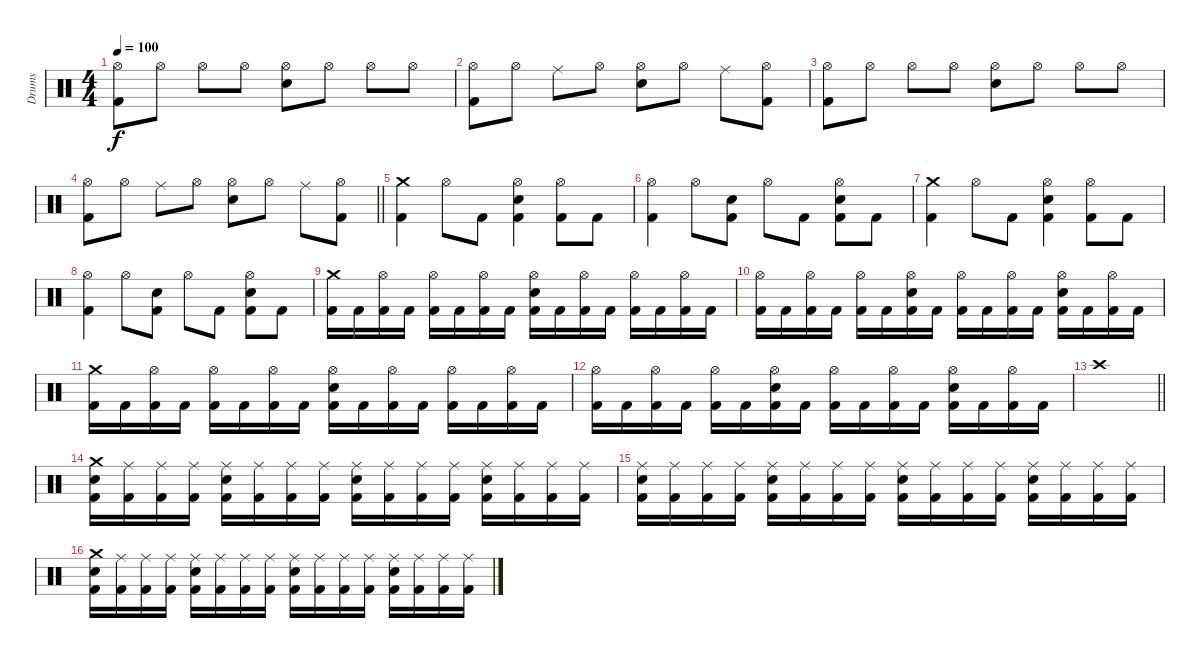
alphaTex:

\track ("Drums" "Drums") {instrument percussion}
\staff {score}
\articulation defaults
\ts (4 4)
\tempo 100
\clef neutral
\ks c
("Hi-Hat (open)" "Kick (hit) 2").8{dy f} "Hi-Hat (open)".8 "Hi-Hat (open)".8 "Hi-Hat (open)".8 ("Hi-Hat (open)" "Snare (hit) 2").8 "Hi-Hat (open)".8 "Hi-Hat (open)".8 "Hi-Hat (open)".8 |
("Hi-Hat (open)" "Kick (hit) 2").8 "Hi-Hat (open)".8 "Ride (middle)".8 "Hi-Hat (open)".8 ("Hi-Hat (open)" "Snare (hit) 2").8 "Hi-Hat (open)".8 "Ride (middle)".8 ("Hi-Hat (open)" "Kick (hit) 2").8 |
("Hi-Hat (open)" "Kick (hit) 2").8 "Hi-Hat (open)".8 "Hi-Hat (open)".8 "Hi-Hat (open)".8 ("Hi-Hat (open)" "Snare (hit) 2").8 "Hi-Hat (open)".8 "Hi-Hat (open)".8 "Hi-Hat (open)".8 |
\barLineRight lightlight
("Hi-Hat (open)" "Kick (hit) 2").8 "Hi-Hat (open)".8 "Ride (middle)".8 "Hi-Hat (open)".8 ("Hi-Hat (open)" "Snare (hit) 2").8 "Hi-Hat (open)".8 "Ride (middle)".8 ("Hi-Hat (open)" "Kick (hit) 2").8 |
("Crash medium (hit)" "Kick (hit) 2").4 "Hi-Hat (open)".8 "Kick (hit) 2".8 ("Hi-Hat (open)" "Snare (hit) 2" "Kick (hit) 2").4 ("Hi-Hat (open)" "Kick (hit) 2").8 "Kick (hit) 2".8 |
("Hi-Hat (open)" "Kick (hit) 2").4 "Hi-Hat (open)".8 ("Snare (hit) 2" "Kick (hit) 2").8 "Hi-Hat (open)".8 "Kick (hit) 2".8 ("Hi-Hat (open)" "Snare (hit) 2" "Kick (hit) 2").8 "Kick (hit) 2".8 |
("Crash medium (hit)" "Kick (hit) 2").4 "Hi-Hat (open)".8 "Kick (hit) 2".8 ("Hi-Hat (open)" "Snare (hit) 2" "Kick (hit) 2").4 ("Hi-Hat (open)" "Kick (hit) 2").8 "Kick (hit) 2".8 |
("Hi-Hat (open)" "Kick (hit) 2").4 "Hi-Hat (open)".8 ("Snare (hit) 2" "Kick (hit) 2").8 "Hi-Hat (open)".8 "Kick (hit) 2".8 ("Hi-Hat (open)" "Snare (hit) 2" "Kick (hit) 2").8 "Kick (hit) 2".8 |
("Crash medium (hit)" "Kick (hit) 2").16 "Kick (hit) 2".16 ("Hi-Hat (open)" "Kick (hit) 2").16 "Kick (hit) 2".16 ("Hi-Hat (open)" "Kick (hit) 2").16 "Kick (hit) 2".16 ("Hi-Hat (open)" "Kick (hit) 2").16 "Kick (hit) 2".16 ("Hi-Hat (open)" "Snare (hit) 2" "Kick (hit) 2").16 "Kick (hit) 2".16 ("Hi-Hat (open)" "Kick (hit) 2").16 "Kick (hit) 2".16 ("Hi-Hat (open)" "Kick (hit) 2").16 "Kick (hit) 2".16 ("Hi-Hat (open)" "Kick (hit) 2").16 "Kick (hit) 2".16 |
("Hi-Hat (open)" "Kick (hit) 2").16 "Kick (hit) 2".16 ("Hi-Hat (open)" "Kick (hit) 2").16 "Kick (hit) 2".16 ("Hi-Hat (open)" "Kick (hit) 2").16 "Kick (hit) 2".16 ("Hi-Hat (open)" "Snare (hit) 2" "Kick (hit) 2").16 "Kick (hit) 2".16 ("Hi-Hat (open)" "Kick (hit) 2").16 "Kick (hit) 2".16 ("Hi-Hat (open)" "Kick (hit) 2").16 "Kick (hit) 2".16 ("Hi-Hat (open)" "Snare (hit) 2" "Kick (hit) 2").16 "Kick (hit) 2".16 ("Hi-Hat (open)" "Kick (hit) 2").16 "Kick (hit) 2".16 |
("Crash medium (hit)" "Kick (hit) 2").16 "Kick (hit) 2".16 ("Hi-Hat (open)" "Kick (hit) 2").16 "Kick (hit) 2".16 ("Hi-Hat (open)" "Kick (hit) 2").16 "Kick (hit) 2".16 ("Hi-Hat (open)" "Kick (hit) 2").16 "Kick (hit) 2".16 ("Hi-Hat (open)" "Snare (hit) 2" "Kick (hit) 2").16 "Kick (hit) 2".16 ("Hi-Hat (open)" "Kick (hit) 2").16 "Kick (hit) 2".16 ("Hi-Hat (open)" "Kick (hit) 2").16 "Kick (hit) 2".16 ("Hi-Hat (open)" "Kick (hit) 2").16 "Kick (hit) 2".16 |
("Hi-Hat (open)" "Kick (hit) 2").16 "Kick (hit) 2".16 ("Hi-Hat (open)" "Kick (hit) 2").16 "Kick (hit) 2".16 ("Hi-Hat (open)" "Kick (hit) 2").16 "Kick (hit) 2".16 ("Hi-Hat (open)" "Snare (hit) 2" "Kick (hit) 2").16 "Kick (hit) 2".16 ("Hi-Hat (open)" "Kick (hit) 2").16 "Kick (hit) 2".16 ("Hi-Hat (open)" "Kick (hit) 2").16 "Kick (hit) 2".16 ("Hi-Hat (open)" "Snare (hit) 2" "Kick (hit) 2").16 "Kick (hit) 2".16 ("Hi-Hat (open)" "Kick (hit) 2").16 "Kick (hit) 2".16 |
\barLineRight lightlight "Crash high (hit)".1
|
("Crash medium (hit)" "Snare (hit) 2" "Kick (hit) 2").16 ("Ride (middle)" "Kick (hit) 2").16 ("Ride (middle)" "Kick (hit) 2").16 ("Ride (middle)" "Kick (hit) 2").16 ("Ride (middle)" "Snare (hit) 2" "Kick (hit) 2").16 ("Ride (middle)" "Kick (hit) 2").16 ("Ride (middle)" "Kick (hit) 2").16 ("Ride (middle)" "Kick (hit) 2").16 ("Ride (middle)" "Snare (hit) 2" "Kick (hit) 2").16 ("Ride (middle)" "Kick (hit) 2").16 ("Ride (middle)" "Kick (hit) 2").16 ("Ride (middle)" "Kick (hit) 2").16 ("Ride (middle)" "Snare (hit) 2" "Kick (hit) 2").16 ("Ride (middle)" "Kick (hit) 2").16 ("Ride (middle)" "Kick (hit) 2").16 ("Ride (middle)" "Kick (hit) 2").16 |
("Ride (middle)" "Snare (hit) 2" "Kick (hit) 2").16 ("Ride (middle)" "Kick (hit) 2").16 ("Ride (middle)" "Kick (hit) 2").16 ("Ride (middle)" "Kick (hit) 2").16 ("Ride (middle)" "Snare (hit) 2" "Kick (hit) 2").16 ("Ride (middle)" "Kick (hit) 2").16 ("Ride (middle)" "Kick (hit) 2").16 ("Ride (middle)" "Kick (hit) 2").16 ("Ride (middle)" "Snare (hit) 2" "Kick (hit) 2").16 ("Ride (middle)" "Kick (hit) 2").16 ("Ride (middle)" "Kick (hit) 2").16 ("Ride (middle)" "Kick (hit) 2").16 ("Ride (middle)" "Snare (hit) 2" "Kick (hit) 2").16 ("Ride (middle)" "Kick (hit) 2").16 ("Ride (middle)" "Kick (hit) 2").16 ("Ride (middle)" "Kick (hit) 2").16 |
("Crash medium (hit)" "Snare (hit) 2" "Kick (hit) 2").16 ("Ride (middle)" "Kick (hit) 2").16 ("Ride (middle)" "Kick (hit) 2").16 ("Ride (middle)" "Kick (hit) 2").16 ("Ride (middle)" "Snare (hit) 2" "Kick (hit) 2").16 ("Ride (middle)" "Kick (hit) 2").16 ("Ride (middle)" "Kick (hit) 2").16 ("Ride (middle)" "Kick (hit) 2").16 ("Ride (middle)" "Snare (hit) 2" "Kick (hit) 2").16 ("Ride (middle)" "Kick (hit) 2").16 ("Ride (middle)" "Kick (hit) 2").16 ("Ride (middle)" "Kick (hit) 2").16 ("Ride (middle)" "Snare (hit) 2" "Kick (hit) 2").16 ("Ride (middle)" "Kick (hit) 2").16 ("Ride (middle)" "Kick (hit) 2").16 ("Ride (middle)" "Kick (hit) 2").16
